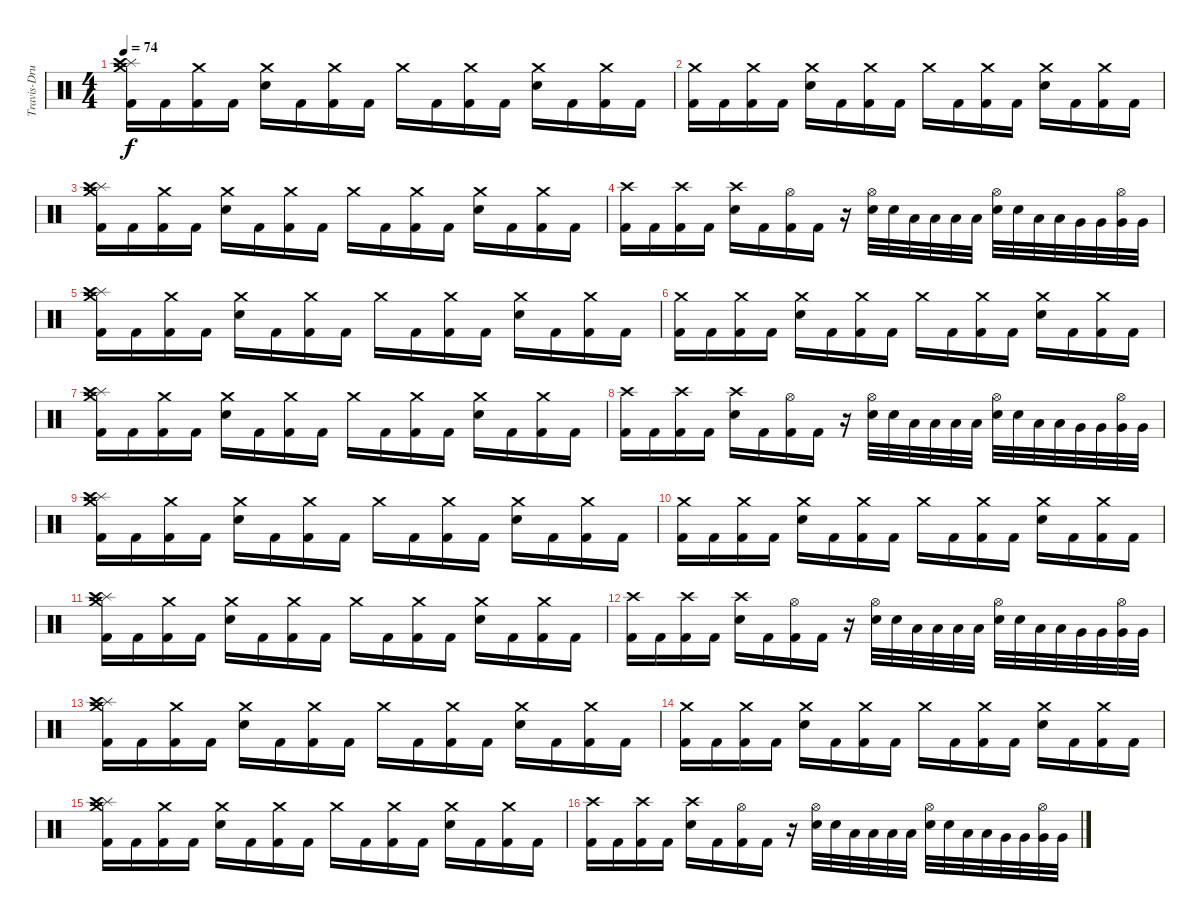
\track ("Travis-Drums" "Travis-Dru") {instrument percussion}
\staff {score}
\articulation defaults
\ts (4 4)
\tempo 74
\clef neutral
\ks c
("Splash (hit)" "Crash high (hit)" "Crash medium (hit)" "Kick (hit) 2").16{dy f volume 10} "Kick (hit) 2".16 ("Crash medium (hit)" "Kick (hit) 2").16 "Kick (hit) 2".16 ("Crash medium (hit)" "Snare (hit) 2").16 "Kick (hit) 2".16 ("Crash medium (hit)" "Kick (hit) 2").16 "Kick (hit) 2".16 "Crash medium (hit)".16 "Kick (hit) 2".16 ("Crash medium (hit)" "Kick (hit) 2").16 "Kick (hit) 2".16 ("Crash medium (hit)" "Snare (hit) 2").16 "Kick (hit) 2".16 ("Crash medium (hit)" "Kick (hit) 2").16 "Kick (hit) 2".16 |
("Crash medium (hit)" "Kick (hit) 2").16 "Kick (hit) 2".16 ("Crash medium (hit)" "Kick (hit) 2").16 "Kick (hit) 2".16 ("Crash medium (hit)" "Snare (hit) 2").16 "Kick (hit) 2".16 ("Crash medium (hit)" "Kick (hit) 2").16 "Kick (hit) 2".16 "Crash medium (hit)".16 "Kick (hit) 2".16 ("Crash medium (hit)" "Kick (hit) 2").16 "Kick (hit) 2".16 ("Crash medium (hit)" "Snare (hit) 2").16 "Kick (hit) 2".16 ("Crash medium (hit)" "Kick (hit) 2").16 "Kick (hit) 2".16 |
("Splash (hit)" "Crash high (hit)" "Crash medium (hit)" "Kick (hit) 2").16 "Kick (hit) 2".16 ("Crash medium (hit)" "Kick (hit) 2").16 "Kick (hit) 2".16 ("Crash medium (hit)" "Snare (hit) 2").16 "Kick (hit) 2".16 ("Crash medium (hit)" "Kick (hit) 2").16 "Kick (hit) 2".16 "Crash medium (hit)".16 "Kick (hit) 2".16 ("Crash medium (hit)" "Kick (hit) 2").16 "Kick (hit) 2".16 ("Crash medium (hit)" "Snare (hit) 2").16 "Kick (hit) 2".16 ("Crash medium (hit)" "Kick (hit) 2").16 "Kick (hit) 2".16 |
("Crash high (hit)" "Kick (hit) 2").16 "Kick (hit) 2".16 ("Crash high (hit)" "Kick (hit) 2").16 "Kick (hit) 2".16 ("Crash high (hit)" "Snare (hit) 2").16 "Kick (hit) 2".16 ("Hi-Hat (open)" "Kick (hit) 2").16 "Kick (hit) 2".16 r.16 ("Hi-Hat (open)" "Electric Snare (hit)").32 "Electric Snare (hit)".32 "Low Tom (hit)".32 "Low Tom (hit)".32 "Low Tom (hit)".32 "Low Tom (hit)".32 ("Hi-Hat (open)" "Electric Snare (hit)").32 "Electric Snare (hit)".32 "Low Tom (hit)".32 "Low Tom (hit)".32 "Very Low Tom (hit)".32 "Very Low Tom (hit)".32 ("Hi-Hat (open)" "Very Low Tom (hit)").32 "Very Low Tom (hit)".32 |
("Splash (hit)" "Crash high (hit)" "Crash medium (hit)" "Kick (hit) 2").16{volume 10} "Kick (hit) 2".16 ("Crash medium (hit)" "Kick (hit) 2").16 "Kick (hit) 2".16 ("Crash medium (hit)" "Snare (hit) 2").16 "Kick (hit) 2".16 ("Crash medium (hit)" "Kick (hit) 2").16 "Kick (hit) 2".16 "Crash medium (hit)".16 "Kick (hit) 2".16 ("Crash medium (hit)" "Kick (hit) 2").16 "Kick (hit) 2".16 ("Crash medium (hit)" "Snare (hit) 2").16 "Kick (hit) 2".16 ("Crash medium (hit)" "Kick (hit) 2").16 "Kick (hit) 2".16 |
("Crash medium (hit)" "Kick (hit) 2").16 "Kick (hit) 2".16 ("Crash medium (hit)" "Kick (hit) 2").16 "Kick (hit) 2".16 ("Crash medium (hit)" "Snare (hit) 2").16 "Kick (hit) 2".16 ("Crash medium (hit)" "Kick (hit) 2").16 "Kick (hit) 2".16 "Crash medium (hit)".16 "Kick (hit) 2".16 ("Crash medium (hit)" "Kick (hit) 2").16 "Kick (hit) 2".16 ("Crash medium (hit)" "Snare (hit) 2").16 "Kick (hit) 2".16 ("Crash medium (hit)" "Kick (hit) 2").16 "Kick (hit) 2".16 |
("Splash (hit)" "Crash high (hit)" "Crash medium (hit)" "Kick (hit) 2").16 "Kick (hit) 2".16 ("Crash medium (hit)" "Kick (hit) 2").16 "Kick (hit) 2".16 ("Crash medium (hit)" "Snare (hit) 2").16 "Kick (hit) 2".16 ("Crash medium (hit)" "Kick (hit) 2").16 "Kick (hit) 2".16 "Crash medium (hit)".16 "Kick (hit) 2".16 ("Crash medium (hit)" "Kick (hit) 2").16 "Kick (hit) 2".16 ("Crash medium (hit)" "Snare (hit) 2").16 "Kick (hit) 2".16 ("Crash medium (hit)" "Kick (hit) 2").16 "Kick (hit) 2".16 |
("Crash high (hit)" "Kick (hit) 2").16 "Kick (hit) 2".16 ("Crash high (hit)" "Kick (hit) 2").16 "Kick (hit) 2".16 ("Crash high (hit)" "Snare (hit) 2").16 "Kick (hit) 2".16 ("Hi-Hat (open)" "Kick (hit) 2").16 "Kick (hit) 2".16 r.16 ("Hi-Hat (open)" "Electric Snare (hit)").32 "Electric Snare (hit)".32 "Low Tom (hit)".32 "Low Tom (hit)".32 "Low Tom (hit)".32 "Low Tom (hit)".32 ("Hi-Hat (open)" "Electric Snare (hit)").32 "Electric Snare (hit)".32 "Low Tom (hit)".32 "Low Tom (hit)".32 "Very Low Tom (hit)".32 "Very Low Tom (hit)".32 ("Hi-Hat (open)" "Very Low Tom (hit)").32 "Very Low Tom (hit)".32 |
("Splash (hit)" "Crash high (hit)" "Crash medium (hit)" "Kick (hit) 2").16 "Kick (hit) 2".16 ("Crash medium (hit)" "Kick (hit) 2").16 "Kick (hit) 2".16 ("Crash medium (hit)" "Snare (hit) 2").16 "Kick (hit) 2".16 ("Crash medium (hit)" "Kick (hit) 2").16 "Kick (hit) 2".16 "Crash medium (hit)".16 "Kick (hit) 2".16 ("Crash medium (hit)" "Kick (hit) 2").16 "Kick (hit) 2".16 ("Crash medium (hit)" "Snare (hit) 2").16 "Kick (hit) 2".16 ("Crash medium (hit)" "Kick (hit) 2").16 "Kick (hit) 2".16 |
("Crash medium (hit)" "Kick (hit) 2").16 "Kick (hit) 2".16 ("Crash medium (hit)" "Kick (hit) 2").16 "Kick (hit) 2".16 ("Crash medium (hit)" "Snare (hit) 2").16 "Kick (hit) 2".16 ("Crash medium (hit)" "Kick (hit) 2").16 "Kick (hit) 2".16 "Crash medium (hit)".16 "Kick (hit) 2".16 ("Crash medium (hit)" "Kick (hit) 2").16 "Kick (hit) 2".16 ("Crash medium (hit)" "Snare (hit) 2").16 "Kick (hit) 2".16 ("Crash medium (hit)" "Kick (hit) 2").16 "Kick (hit) 2".16 |
("Splash (hit)" "Crash high (hit)" "Crash medium (hit)" "Kick (hit) 2").16 "Kick (hit) 2".16 ("Crash medium (hit)" "Kick (hit) 2").16 "Kick (hit) 2".16 ("Crash medium (hit)" "Snare (hit) 2").16 "Kick (hit) 2".16 ("Crash medium (hit)" "Kick (hit) 2").16 "Kick (hit) 2".16 "Crash medium (hit)".16 "Kick (hit) 2".16 ("Crash medium (hit)" "Kick (hit) 2").16 "Kick (hit) 2".16 ("Crash medium (hit)" "Snare (hit) 2").16 "Kick (hit) 2".16 ("Crash medium (hit)" "Kick (hit) 2").16 "Kick (hit) 2".16 |
("Crash high (hit)" "Kick (hit) 2").16 "Kick (hit) 2".16 ("Crash high (hit)" "Kick (hit) 2").16 "Kick (hit) 2".16 ("Crash high (hit)" "Snare (hit) 2").16 "Kick (hit) 2".16 ("Hi-Hat (open)" "Kick (hit) 2").16 "Kick (hit) 2".16 r.16 ("Hi-Hat (open)" "Electric Snare (hit)").32 "Electric Snare (hit)".32 "Low Tom (hit)".32 "Low Tom (hit)".32 "Low Tom (hit)".32 "Low Tom (hit)".32 ("Hi-Hat (open)" "Electric Snare (hit)").32 "Electric Snare (hit)".32 "Low Tom (hit)".32 "Low Tom (hit)".32 "Very Low Tom (hit)".32 "Very Low Tom (hit)".32 ("Hi-Hat (open)" "Very Low Tom (hit)").32 "Very Low Tom (hit)".32 |
("Splash (hit)" "Crash high (hit)" "Crash medium (hit)" "Kick (hit) 2").16 "Kick (hit) 2".16 ("Crash medium (hit)" "Kick (hit) 2").16 "Kick (hit) 2".16 ("Crash medium (hit)" "Snare (hit) 2").16 "Kick (hit) 2".16 ("Crash medium (hit)" "Kick (hit) 2").16 "Kick (hit) 2".16 "Crash medium (hit)".16 "Kick (hit) 2".16 ("Crash medium (hit)" "Kick (hit) 2").16 "Kick (hit) 2".16 ("Crash medium (hit)" "Snare (hit) 2").16 "Kick (hit) 2".16 ("Crash medium (hit)" "Kick (hit) 2").16 "Kick (hit) 2".16 |
("Crash medium (hit)" "Kick (hit) 2").16 "Kick (hit) 2".16 ("Crash medium (hit)" "Kick (hit) 2").16 "Kick (hit) 2".16 ("Crash medium (hit)" "Snare (hit) 2").16 "Kick (hit) 2".16 ("Crash medium (hit)" "Kick (hit) 2").16 "Kick (hit) 2".16 "Crash medium (hit)".16 "Kick (hit) 2".16 ("Crash medium (hit)" "Kick (hit) 2").16 "Kick (hit) 2".16 ("Crash medium (hit)" "Snare (hit) 2").16 "Kick (hit) 2".16 ("Crash medium (hit)" "Kick (hit) 2").16 "Kick (hit) 2".16 |
("Splash (hit)" "Crash high (hit)" "Crash medium (hit)" "Kick (hit) 2").16 "Kick (hit) 2".16 ("Crash medium (hit)" "Kick (hit) 2").16 "Kick (hit) 2".16 ("Crash medium (hit)" "Snare (hit) 2").16 "Kick (hit) 2".16 ("Crash medium (hit)" "Kick (hit) 2").16 "Kick (hit) 2".16 "Crash medium (hit)".16 "Kick (hit) 2".16 ("Crash medium (hit)" "Kick (hit) 2").16 "Kick (hit) 2".16 ("Crash medium (hit)" "Snare (hit) 2").16 "Kick (hit) 2".16 ("Crash medium (hit)" "Kick (hit) 2").16 "Kick (hit) 2".16 |
("Crash high (hit)" "Kick (hit) 2").16 "Kick (hit) 2".16 ("Crash high (hit)" "Kick (hit) 2").16 "Kick (hit) 2".16 ("Crash high (hit)" "Snare (hit) 2").16 "Kick (hit) 2".16 ("Hi-Hat (open)" "Kick (hit) 2").16 "Kick (hit) 2".16 r.16 ("Hi-Hat (open)" "Electric Snare (hit)").32 "Electric Snare (hit)".32 "Low Tom (hit)".32 "Low Tom (hit)".32 "Low Tom (hit)".32 "Low Tom (hit)".32 ("Hi-Hat (open)" "Electric Snare (hit)").32 "Electric Snare (hit)".32 "Low Tom (hit)".32 "Low Tom (hit)".32 "Very Low Tom (hit)".32 "Very Low Tom (hit)".32 ("Hi-Hat (open)" "Very Low Tom (hit)").32 "Very Low Tom (hit)".32
